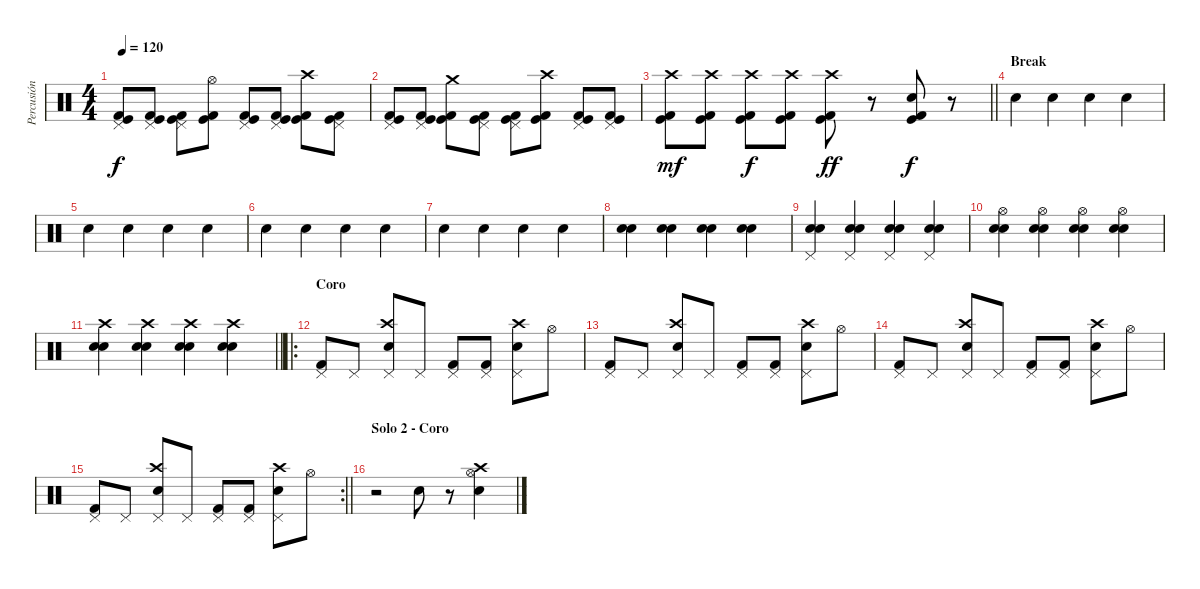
\track ("Percusión" "Percusión") {instrument percussion}
\staff {score}
\articulation defaults
\ts (4 4)
\tempo 120
\clef neutral
\ks c
("Kick (hit)" "Kick (hit) 2" "Pedal Hi-Hat (hit)").8{dy f} ("Kick (hit)" "Kick (hit) 2" "Pedal Hi-Hat (hit)").8 ("Kick (hit)" "Kick (hit) 2" "Pedal Hi-Hat (hit)").8 ("Kick (hit)" "Kick (hit) 2" "Hi-Hat (open)").8 ("Kick (hit)" "Kick (hit) 2" "Pedal Hi-Hat (hit)").8 ("Kick (hit)" "Kick (hit) 2" "Pedal Hi-Hat (hit)").8 ("Kick (hit)" "Kick (hit) 2" "Crash high (hit)").8 ("Kick (hit)" "Kick (hit) 2" "Pedal Hi-Hat (hit)").8 |
("Kick (hit)" "Kick (hit) 2" "Pedal Hi-Hat (hit)").8 ("Kick (hit)" "Kick (hit) 2" "Pedal Hi-Hat (hit)").8 ("Kick (hit)" "Kick (hit) 2" "Crash medium (hit)").8 ("Kick (hit)" "Kick (hit) 2" "Pedal Hi-Hat (hit)").8 ("Kick (hit)" "Kick (hit) 2" "Pedal Hi-Hat (hit)").8 ("Kick (hit)" "Kick (hit) 2" "Crash high (hit)").8 ("Kick (hit)" "Kick (hit) 2" "Pedal Hi-Hat (hit)").8 ("Kick (hit)" "Kick (hit) 2" "Pedal Hi-Hat (hit)").8 |
\barLineRight lightlight
("Kick (hit)" "Kick (hit) 2" "Crash high (hit)").8{dy mf} ("Kick (hit)" "Kick (hit) 2" "Crash high (hit)").8 ("Kick (hit)" "Kick (hit) 2" "Crash high (hit)").8{dy f} ("Kick (hit)" "Kick (hit) 2" "Crash high (hit)").8 ("Kick (hit)" "Kick (hit) 2" "Crash high (hit)").8{dy ff} r.8 ("Kick (hit)" "Snare (hit) 2" "Kick (hit) 2").8{dy f} r.8 |
\section ("" "Break")
"Hand Clap (hit)".4 "Hand Clap (hit)".4 "Hand Clap (hit)".4 "Hand Clap (hit)".4 |
"Hand Clap (hit)".4 "Hand Clap (hit)".4 "Hand Clap (hit)".4 "Hand Clap (hit)".4 |
"Hand Clap (hit)".4 "Hand Clap (hit)".4 "Hand Clap (hit)".4 "Hand Clap (hit)".4 |
"Hand Clap (hit)".4 "Hand Clap (hit)".4 "Hand Clap (hit)".4 "Hand Clap (hit)".4 |
("Snare (hit) 2" "Electric Snare (hit)").4 ("Snare (hit) 2" "Electric Snare (hit)").4 ("Snare (hit) 2" "Electric Snare (hit)").4 ("Snare (hit) 2" "Electric Snare (hit)").4 |
("Snare (hit) 2" "Electric Snare (hit)" "Pedal Hi-Hat (hit)").4 ("Snare (hit) 2" "Electric Snare (hit)" "Pedal Hi-Hat (hit)").4 ("Snare (hit) 2" "Electric Snare (hit)" "Pedal Hi-Hat (hit)").4 ("Snare (hit) 2" "Pedal Hi-Hat (hit)" "Electric Snare (hit)").4 |
("Electric Snare (hit)" "Hi-Hat (open)" "Snare (hit) 2").4 ("Electric Snare (hit)" "Hi-Hat (open)" "Snare (hit) 2").4 ("Electric Snare (hit)" "Hi-Hat (open)" "Snare (hit) 2").4 ("Electric Snare (hit)" "Hi-Hat (open)" "Snare (hit) 2").4 |
\barLineRight lightlight
("Electric Snare (hit)" "Crash high (hit)" "Snare (hit) 2").4 ("Electric Snare (hit)" "Crash high (hit)" "Snare (hit) 2").4 ("Electric Snare (hit)" "Crash high (hit)" "Snare (hit) 2").4 ("Electric Snare (hit)" "Crash high (hit)" "Snare (hit) 2").4 |
\ro
\section ("" "Coro")
("Pedal Hi-Hat (hit)" "Kick (hit) 2").8 "Pedal Hi-Hat (hit)".8 ("Pedal Hi-Hat (hit)" "Crash high (hit)" "Snare (hit) 2").8 "Pedal Hi-Hat (hit)".8 ("Pedal Hi-Hat (hit)" "Kick (hit) 2").8 ("Pedal Hi-Hat (hit)" "Kick (hit) 2").8 ("Pedal Hi-Hat (hit)" "Crash high (hit)" "Snare (hit) 2").8 "Hi-Hat (open)".8 |
("Pedal Hi-Hat (hit)" "Kick (hit) 2").8 "Pedal Hi-Hat (hit)".8 ("Pedal Hi-Hat (hit)" "Crash high (hit)" "Snare (hit) 2").8 "Pedal Hi-Hat (hit)".8 ("Pedal Hi-Hat (hit)" "Kick (hit) 2").8 ("Pedal Hi-Hat (hit)" "Kick (hit) 2").8 ("Pedal Hi-Hat (hit)" "Crash high (hit)" "Snare (hit) 2").8 "Hi-Hat (open)".8 |
("Pedal Hi-Hat (hit)" "Kick (hit) 2").8 "Pedal Hi-Hat (hit)".8 ("Pedal Hi-Hat (hit)" "Crash high (hit)" "Snare (hit) 2").8 "Pedal Hi-Hat (hit)".8 ("Pedal Hi-Hat (hit)" "Kick (hit) 2").8 ("Pedal Hi-Hat (hit)" "Kick (hit) 2").8 ("Pedal Hi-Hat (hit)" "Crash high (hit)" "Snare (hit) 2").8 "Hi-Hat (open)".8 |
\rc 2
\barLineRight lightlight
("Pedal Hi-Hat (hit)" "Kick (hit) 2").8 "Pedal Hi-Hat (hit)".8 ("Pedal Hi-Hat (hit)" "Crash high (hit)" "Snare (hit) 2").8 "Pedal Hi-Hat (hit)".8 ("Pedal Hi-Hat (hit)" "Kick (hit) 2").8 ("Pedal Hi-Hat (hit)" "Kick (hit) 2").8 ("Pedal Hi-Hat (hit)" "Crash high (hit)" "Snare (hit) 2").8 "Hi-Hat (open)".8 |
\section ("" "Solo 2 - Coro")
r.2 "Snare (hit) 2".8 r.8 ("Crash high (hit)" "Hi-Hat (open)" "Electric Snare (hit)").4
